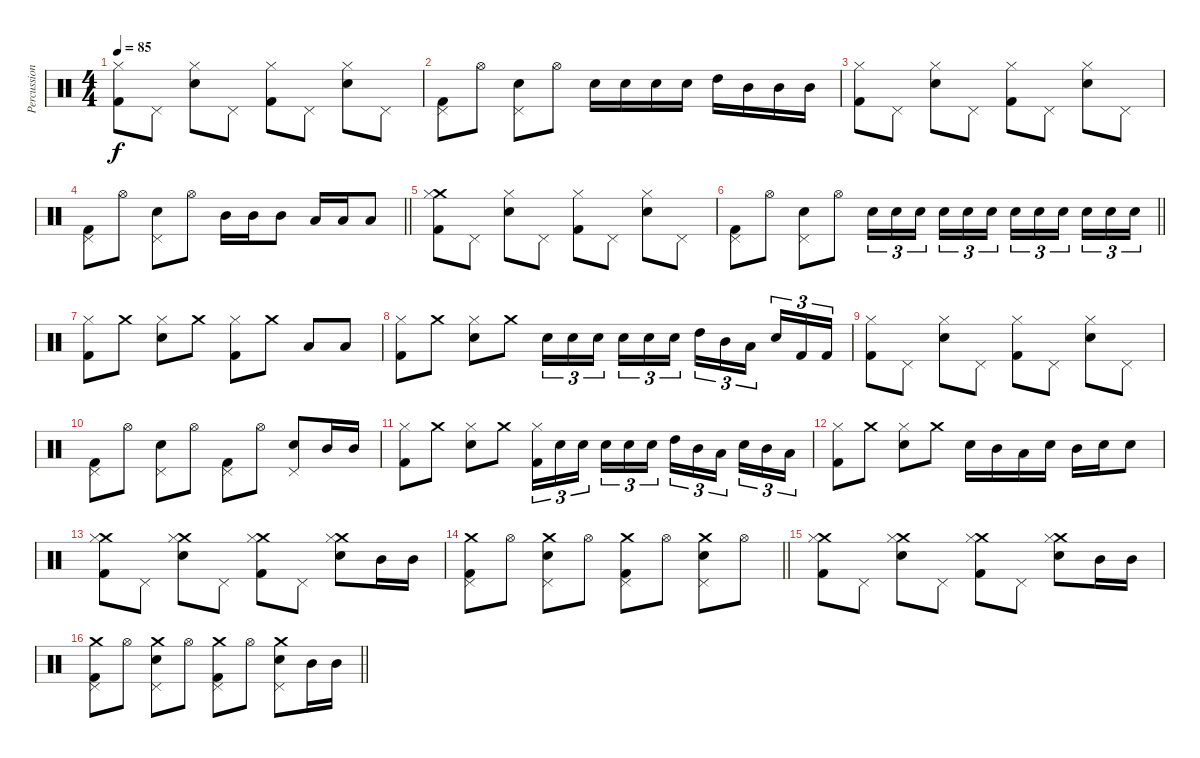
\track ("Percussion" "Percussion") {instrument percussion}
\staff {score}
\articulation defaults
\ts (4 4)
\tempo 85
\clef neutral
\ks c
("Hi-Hat (closed)" "Kick (hit) 2").8{dy f} "Pedal Hi-Hat (hit)".8 ("Hi-Hat (closed)" "Snare (hit) 2").8 "Pedal Hi-Hat (hit)".8 ("Hi-Hat (closed)" "Kick (hit) 2").8 "Pedal Hi-Hat (hit)".8 ("Hi-Hat (closed)" "Snare (hit) 2").8 "Pedal Hi-Hat (hit)".8 |
("Pedal Hi-Hat (hit)" "Kick (hit) 2").8 "Hi-Hat (open)".8 ("Pedal Hi-Hat (hit)" "Snare (hit) 2").8 "Hi-Hat (open)".8 "Snare (hit) 2".16 "Snare (hit) 2".16 "Snare (hit) 2".16 "Snare (hit) 2".16 "High Tom (hit)".16 "Mid Tom (hit)".16 "Mid Tom (hit)".16 "Mid Tom (hit)".16 |
("Hi-Hat (closed)" "Kick (hit) 2").8 "Pedal Hi-Hat (hit)".8 ("Hi-Hat (closed)" "Snare (hit) 2").8 "Pedal Hi-Hat (hit)".8 ("Hi-Hat (closed)" "Kick (hit) 2").8 "Pedal Hi-Hat (hit)".8 ("Hi-Hat (closed)" "Snare (hit) 2").8 "Pedal Hi-Hat (hit)".8 |
\barLineRight lightlight
("Pedal Hi-Hat (hit)" "Kick (hit) 2").8 "Hi-Hat (open)".8 ("Pedal Hi-Hat (hit)" "Snare (hit) 2").8 "Hi-Hat (open)".8 "Mid Tom (hit)".16 "Mid Tom (hit)".16 "Mid Tom (hit)".8 "Low Tom (hit)".16 "Low Tom (hit)".16 "Low Tom (hit)".8 |
("Crash medium (hit)" "Hi-Hat (closed)" "Kick (hit) 2").8 "Pedal Hi-Hat (hit)".8 ("Hi-Hat (closed)" "Snare (hit) 2").8 "Pedal Hi-Hat (hit)".8 ("Hi-Hat (closed)" "Kick (hit) 2").8 "Pedal Hi-Hat (hit)".8 ("Hi-Hat (closed)" "Snare (hit) 2").8 "Pedal Hi-Hat (hit)".8 |
\barLineRight lightlight
("Pedal Hi-Hat (hit)" "Kick (hit) 2").8 "Hi-Hat (open)".8 ("Pedal Hi-Hat (hit)" "Snare (hit) 2").8 "Hi-Hat (open)".8 "Snare (hit) 2".16{tu (3 2)} "Snare (hit) 2".16{tu (3 2)} "Snare (hit) 2".16{tu (3 2) beam splitsecondary} "Snare (hit) 2".16{tu (3 2)} "Snare (hit) 2".16{tu (3 2)} "Snare (hit) 2".16{tu (3 2)} "Snare (hit) 2".16{tu (3 2)} "Snare (hit) 2".16{tu (3 2)} "Snare (hit) 2".16{tu (3 2) beam splitsecondary} "Snare (hit) 2".16{tu (3 2)} "Snare (hit) 2".16{tu (3 2)} "Snare (hit) 2".16{tu (3 2)} |
("Kick (hit) 2" "Hi-Hat (closed)").8 "Crash medium (hit)".8 ("Snare (hit) 2" "Hi-Hat (closed)").8 "Crash medium (hit)".8 ("Kick (hit) 2" "Hi-Hat (closed)").8 "Crash medium (hit)".8 "Low Tom (hit)".8 "Low Tom (hit)".8 |
("Kick (hit) 2" "Hi-Hat (closed)").8 "Crash medium (hit)".8 ("Snare (hit) 2" "Hi-Hat (closed)").8 "Crash medium (hit)".8 "Snare (hit) 2".16{tu (3 2)} "Snare (hit) 2".16{tu (3 2)} "Snare (hit) 2".16{tu (3 2) beam splitsecondary} "Snare (hit) 2".16{tu (3 2)} "Snare (hit) 2".16{tu (3 2)} "Snare (hit) 2".16{tu (3 2)} "High Tom (hit)".16{tu (3 2)} "Mid Tom (hit)".16{tu (3 2)} "Low Tom (hit)".16{tu (3 2) beam splitsecondary} "Snare (hit) 2".16{tu (3 2)} "Kick (hit) 2".16{tu (3 2)} "Kick (hit) 2".16{tu (3 2)} |
("Hi-Hat (closed)" "Kick (hit) 2").8 "Pedal Hi-Hat (hit)".8 ("Hi-Hat (closed)" "Snare (hit) 2").8 "Pedal Hi-Hat (hit)".8 ("Hi-Hat (closed)" "Kick (hit) 2").8 "Pedal Hi-Hat (hit)".8 ("Hi-Hat (closed)" "Snare (hit) 2").8 "Pedal Hi-Hat (hit)".8 |
("Pedal Hi-Hat (hit)" "Kick (hit) 2").8 "Hi-Hat (open)".8 ("Pedal Hi-Hat (hit)" "Snare (hit) 2").8 "Hi-Hat (open)".8 ("Pedal Hi-Hat (hit)" "Kick (hit) 2").8 "Hi-Hat (open)".8 ("Pedal Hi-Hat (hit)" "Snare (hit) 2").8 "Mid Tom (hit)".16 "Mid Tom (hit)".16 |
("Kick (hit) 2" "Hi-Hat (closed)").8 "Crash medium (hit)".8 ("Snare (hit) 2" "Hi-Hat (closed)").8 "Crash medium (hit)".8 ("Hi-Hat (closed)" "Kick (hit) 2").16{tu (3 2)} "Snare (hit) 2".16{tu (3 2)} "Snare (hit) 2".16{tu (3 2) beam splitsecondary} "Snare (hit) 2".16{tu (3 2)} "Snare (hit) 2".16{tu (3 2)} "Snare (hit) 2".16{tu (3 2)} "High Tom (hit)".16{tu (3 2)} "Mid Tom (hit)".16{tu (3 2)} "Low Tom (hit)".16{tu (3 2) beam splitsecondary} "Snare (hit) 2".16{tu (3 2)} "Mid Tom (hit)".16{tu (3 2)} "Low Tom (hit)".16{tu (3 2)} |
("Kick (hit) 2" "Hi-Hat (closed)").8 "Crash medium (hit)".8 ("Snare (hit) 2" "Hi-Hat (closed)").8 "Crash medium (hit)".8 "Snare (hit) 2".16 "Mid Tom (hit)".16 "Low Tom (hit)".16 "Snare (hit) 2".16 "Mid Tom (hit)".16 "Snare (hit) 2".16 "Snare (hit) 2".8 |
("Crash medium (hit)" "Hi-Hat (closed)" "Kick (hit) 2").8 "Pedal Hi-Hat (hit)".8 ("Crash medium (hit)" "Hi-Hat (closed)" "Snare (hit) 2").8 "Pedal Hi-Hat (hit)".8 ("Crash medium (hit)" "Hi-Hat (closed)" "Kick (hit) 2").8 "Pedal Hi-Hat (hit)".8 ("Crash medium (hit)" "Hi-Hat (closed)" "Snare (hit) 2").8 "Mid Tom (hit)".16 "Mid Tom (hit)".16 |
\barLineRight lightlight
("Crash medium (hit)" "Pedal Hi-Hat (hit)" "Kick (hit) 2").8 "Hi-Hat (open)".8 ("Crash medium (hit)" "Pedal Hi-Hat (hit)" "Snare (hit) 2").8 "Hi-Hat (open)".8 ("Crash medium (hit)" "Pedal Hi-Hat (hit)" "Kick (hit) 2").8 "Hi-Hat (open)".8 ("Crash medium (hit)" "Pedal Hi-Hat (hit)" "Snare (hit) 2").8 "Hi-Hat (open)".8 |
("Crash medium (hit)" "Hi-Hat (closed)" "Kick (hit) 2").8 "Pedal Hi-Hat (hit)".8 ("Crash medium (hit)" "Hi-Hat (closed)" "Snare (hit) 2").8 "Pedal Hi-Hat (hit)".8 ("Crash medium (hit)" "Hi-Hat (closed)" "Kick (hit) 2").8 "Pedal Hi-Hat (hit)".8 ("Crash medium (hit)" "Hi-Hat (closed)" "Snare (hit) 2").8 "Mid Tom (hit)".16 "Mid Tom (hit)".16 |
\barLineRight lightlight
("Crash medium (hit)" "Pedal Hi-Hat (hit)" "Kick (hit) 2").8 "Hi-Hat (open)".8 ("Crash medium (hit)" "Pedal Hi-Hat (hit)" "Snare (hit) 2").8 "Hi-Hat (open)".8 ("Crash medium (hit)" "Pedal Hi-Hat (hit)" "Kick (hit) 2").8 "Hi-Hat (open)".8 ("Crash medium (hit)" "Pedal Hi-Hat (hit)" "Snare (hit) 2").8 "Mid Tom (hit)".16 "Mid Tom (hit)".16
